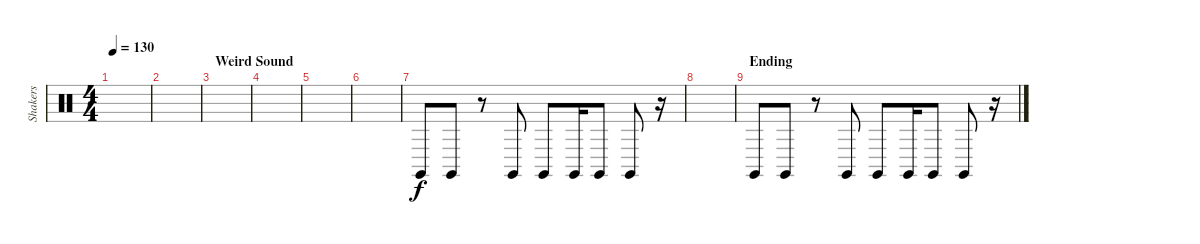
\track ("Shakers" "Shakers") {instrument percussion}
\staff {score}
\articulation defaults
\ts (4 4)
\tempo 130
\clef neutral
\ks c
|
|
\section ("" "Weird Sound")
|
|
|
|
"Claves (hit)".8{dy f} "Claves (hit)".8 r.8 "Claves (hit)".8 "Claves (hit)".8 "Claves (hit)".16 "Claves (hit)".8 "Claves (hit)".8 r.16 |
|
\section ("" "Ending")
"Claves (hit)".8 "Claves (hit)".8 r.8 "Claves (hit)".8 "Claves (hit)".8 "Claves (hit)".16 "Claves (hit)".8 "Claves (hit)".8 r.16
